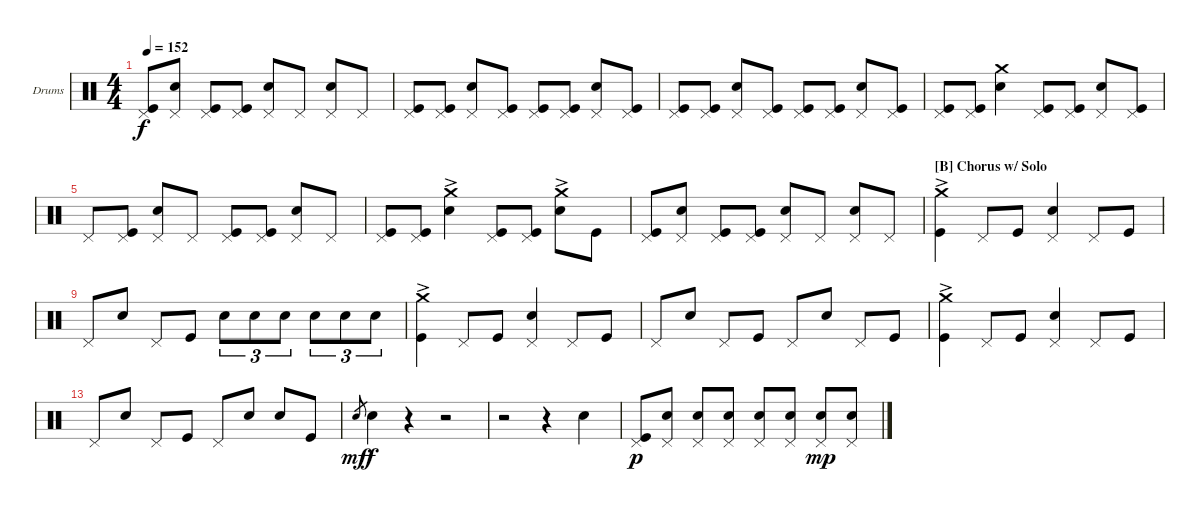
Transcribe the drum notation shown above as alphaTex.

\bracketExtendMode nobrackets
\firstSystemTrackNameOrientation horizontal
\otherSystemsTrackNameOrientation horizontal
\defaultBarNumberDisplay FirstOfSystem
\track ("Drumkit" "Drums") {instrument percussion}
\staff {score}
\articulation defaults
\ts (4 4)
\tempo 152
\clef neutral
\ks c
("Pedal Hi-Hat (hit)" "Kick (hit)").8{dy f} ("Pedal Hi-Hat (hit)" "Snare (hit) 2").8 ("Pedal Hi-Hat (hit)" "Kick (hit)").8 ("Pedal Hi-Hat (hit)" "Kick (hit)").8 ("Pedal Hi-Hat (hit)" "Snare (hit) 2").8 "Pedal Hi-Hat (hit)".8 ("Pedal Hi-Hat (hit)" "Snare (hit) 2").8 "Pedal Hi-Hat (hit)".8 |
("Pedal Hi-Hat (hit)" "Kick (hit)").8 ("Pedal Hi-Hat (hit)" "Kick (hit)").8 ("Pedal Hi-Hat (hit)" "Snare (hit) 2").8 ("Pedal Hi-Hat (hit)" "Kick (hit)").8 ("Pedal Hi-Hat (hit)" "Kick (hit)").8 ("Pedal Hi-Hat (hit)" "Kick (hit)").8 ("Pedal Hi-Hat (hit)" "Snare (hit) 2").8 ("Pedal Hi-Hat (hit)" "Kick (hit)").8 |
("Pedal Hi-Hat (hit)" "Kick (hit)").8 ("Pedal Hi-Hat (hit)" "Kick (hit)").8 ("Pedal Hi-Hat (hit)" "Snare (hit) 2").8 ("Pedal Hi-Hat (hit)" "Kick (hit)").8 ("Pedal Hi-Hat (hit)" "Kick (hit)").8 ("Pedal Hi-Hat (hit)" "Kick (hit)").8 ("Pedal Hi-Hat (hit)" "Snare (hit) 2").8 ("Pedal Hi-Hat (hit)" "Kick (hit)").8 |
("Pedal Hi-Hat (hit)" "Kick (hit)").8 ("Pedal Hi-Hat (hit)" "Kick (hit)").8 ("Crash medium (hit)" "Snare (hit) 2").4 ("Pedal Hi-Hat (hit)" "Kick (hit)").8 ("Pedal Hi-Hat (hit)" "Kick (hit)").8 ("Pedal Hi-Hat (hit)" "Snare (hit) 2").8 ("Pedal Hi-Hat (hit)" "Kick (hit)").8 |
"Pedal Hi-Hat (hit)".8 ("Pedal Hi-Hat (hit)" "Kick (hit)").8 ("Pedal Hi-Hat (hit)" "Snare (hit) 2").8 "Pedal Hi-Hat (hit)".8 ("Pedal Hi-Hat (hit)" "Kick (hit)").8 ("Pedal Hi-Hat (hit)" "Kick (hit)").8 ("Pedal Hi-Hat (hit)" "Snare (hit) 2").8 "Pedal Hi-Hat (hit)".8 |
("Pedal Hi-Hat (hit)" "Kick (hit)").8 ("Pedal Hi-Hat (hit)" "Kick (hit)").8 ("Crash medium (hit)"{ac} "Snare (hit) 2").4 ("Pedal Hi-Hat (hit)" "Kick (hit)").8 ("Pedal Hi-Hat (hit)" "Kick (hit)").8 ("Crash medium (hit)"{ac} "Snare (hit) 2").8 "Kick (hit)".8 |
("Pedal Hi-Hat (hit)" "Kick (hit)").8 ("Pedal Hi-Hat (hit)" "Snare (hit) 2").8 ("Pedal Hi-Hat (hit)" "Kick (hit)").8 ("Pedal Hi-Hat (hit)" "Kick (hit)").8 ("Pedal Hi-Hat (hit)" "Snare (hit) 2").8 "Pedal Hi-Hat (hit)".8 ("Pedal Hi-Hat (hit)" "Snare (hit) 2").8 "Pedal Hi-Hat (hit)".8 |
\section ("B" "Chorus w/ Solo")
("Crash medium (hit)"{ac} "Kick (hit)").4 "Pedal Hi-Hat (hit)".8 "Kick (hit)".8 ("Pedal Hi-Hat (hit)" "Snare (hit) 2").4 "Pedal Hi-Hat (hit)".8 "Kick (hit)".8 |
"Pedal Hi-Hat (hit)".8 "Snare (hit) 2".8 "Pedal Hi-Hat (hit)".8 "Kick (hit)".8 "Snare (hit) 2".8{tu (3 2)} "Snare (hit) 2".8{tu (3 2)} "Snare (hit) 2".8{tu (3 2)} "Snare (hit) 2".8{tu (3 2)} "Snare (hit) 2".8{tu (3 2)} "Snare (hit) 2".8{tu (3 2)} |
("Crash medium (hit)"{ac} "Kick (hit)").4 "Pedal Hi-Hat (hit)".8 "Kick (hit)".8 ("Pedal Hi-Hat (hit)" "Snare (hit) 2").4 "Pedal Hi-Hat (hit)".8 "Kick (hit)".8 |
"Pedal Hi-Hat (hit)".8 "Snare (hit) 2".8 "Pedal Hi-Hat (hit)".8 "Kick (hit)".8 "Pedal Hi-Hat (hit)".8 "Snare (hit) 2".8 "Pedal Hi-Hat (hit)".8 "Kick (hit)".8 |
("Crash medium (hit)"{ac} "Kick (hit)").4 "Pedal Hi-Hat (hit)".8 "Kick (hit)".8 ("Pedal Hi-Hat (hit)" "Snare (hit) 2").4 "Pedal Hi-Hat (hit)".8 "Kick (hit)".8 |
"Pedal Hi-Hat (hit)".8 "Snare (hit) 2".8 "Pedal Hi-Hat (hit)".8 "Kick (hit)".8 "Pedal Hi-Hat (hit)".8 "Snare (hit) 2".8 "Snare (hit) 2".8 "Kick (hit)".8 |
"Snare (hit) 2".8{gr dy mf} "Snare (hit) 2".4{dy f} r.4 r.2 |
r.2 r.4 "Snare (hit) 2".4 |
("Pedal Hi-Hat (hit)" "Kick (hit)").8{dy p} ("Pedal Hi-Hat (hit)" "Snare (hit) 2").8 ("Pedal Hi-Hat (hit)" "Snare (hit) 2").8 ("Pedal Hi-Hat (hit)" "Snare (hit) 2").8 ("Pedal Hi-Hat (hit)" "Snare (hit) 2").8 ("Pedal Hi-Hat (hit)" "Snare (hit) 2").8 ("Pedal Hi-Hat (hit)" "Snare (hit) 2").8{dy mp} ("Pedal Hi-Hat (hit)" "Snare (hit) 2").8
